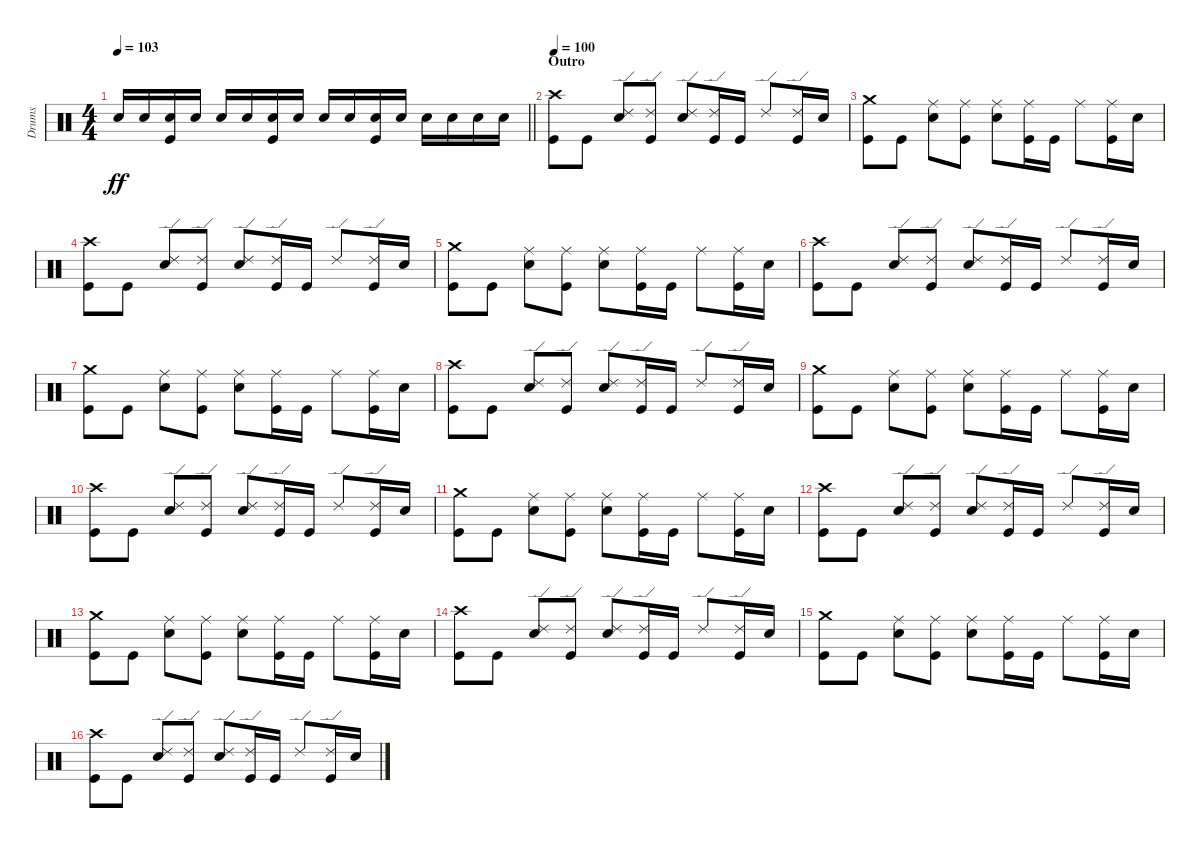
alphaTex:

\track ("Drums" "Drums") {instrument percussion}
\staff {score}
\articulation defaults
\ts (4 4)
\tempo 103
\clef neutral
\barLineRight lightlight
\ks c "Electric Snare (hit)".16{dy ff} "Electric Snare (hit)".16
("Electric Snare (hit)" "Kick (hit)").16 "Electric Snare (hit)".16 "Electric Snare (hit)".16 "Electric Snare (hit)".16 ("Electric Snare (hit)" "Kick (hit)").16 "Electric Snare (hit)".16 "Electric Snare (hit)".16 "Electric Snare (hit)".16 ("Electric Snare (hit)" "Kick (hit)").16 "Electric Snare (hit)".16 "Electric Snare (hit)".16 "Electric Snare (hit)".16 "Electric Snare (hit)".16 "Electric Snare (hit)".16 |
\section ("" "Outro")
\tempo 100
("Crash high (hit)" "Kick (hit)").8 "Kick (hit)".8 ("Ride (edge) 2" "Electric Snare (hit)").8 ("Ride (edge) 2" "Kick (hit)").8 ("Ride (edge) 2" "Electric Snare (hit)").8 ("Ride (edge) 2" "Kick (hit)").16 "Kick (hit)".16 "Ride (edge) 2".8 ("Ride (edge) 2" "Kick (hit)").16 "Electric Snare (hit)".16 |
("Crash medium (hit)" "Kick (hit)").8 "Kick (hit)".8 ("Ride (middle)" "Electric Snare (hit)").8 ("Ride (middle)" "Kick (hit)").8 ("Ride (middle)" "Electric Snare (hit)").8 ("Ride (middle)" "Kick (hit)").16 "Kick (hit)".16 "Ride (middle)".8 ("Ride (middle)" "Kick (hit)").16 "Electric Snare (hit)".16 |
("Crash high (hit)" "Kick (hit)").8 "Kick (hit)".8 ("Ride (edge) 2" "Electric Snare (hit)").8 ("Ride (edge) 2" "Kick (hit)").8 ("Ride (edge) 2" "Electric Snare (hit)").8 ("Ride (edge) 2" "Kick (hit)").16 "Kick (hit)".16 "Ride (edge) 2".8 ("Ride (edge) 2" "Kick (hit)").16 "Electric Snare (hit)".16 |
("Crash medium (hit)" "Kick (hit)").8 "Kick (hit)".8 ("Ride (middle)" "Electric Snare (hit)").8 ("Ride (middle)" "Kick (hit)").8 ("Ride (middle)" "Electric Snare (hit)").8 ("Ride (middle)" "Kick (hit)").16 "Kick (hit)".16 "Ride (middle)".8 ("Ride (middle)" "Kick (hit)").16 "Electric Snare (hit)".16 |
("Crash high (hit)" "Kick (hit)").8 "Kick (hit)".8 ("Ride (edge) 2" "Electric Snare (hit)").8 ("Ride (edge) 2" "Kick (hit)").8 ("Ride (edge) 2" "Electric Snare (hit)").8 ("Ride (edge) 2" "Kick (hit)").16 "Kick (hit)".16 "Ride (edge) 2".8 ("Ride (edge) 2" "Kick (hit)").16 "Electric Snare (hit)".16 |
("Crash medium (hit)" "Kick (hit)").8 "Kick (hit)".8 ("Ride (middle)" "Electric Snare (hit)").8 ("Ride (middle)" "Kick (hit)").8 ("Ride (middle)" "Electric Snare (hit)").8 ("Ride (middle)" "Kick (hit)").16 "Kick (hit)".16 "Ride (middle)".8 ("Ride (middle)" "Kick (hit)").16 "Electric Snare (hit)".16 |
("Crash high (hit)" "Kick (hit)").8 "Kick (hit)".8 ("Ride (edge) 2" "Electric Snare (hit)").8 ("Ride (edge) 2" "Kick (hit)").8 ("Ride (edge) 2" "Electric Snare (hit)").8 ("Ride (edge) 2" "Kick (hit)").16 "Kick (hit)".16 "Ride (edge) 2".8 ("Ride (edge) 2" "Kick (hit)").16 "Electric Snare (hit)".16 |
("Crash medium (hit)" "Kick (hit)").8 "Kick (hit)".8 ("Ride (middle)" "Electric Snare (hit)").8 ("Ride (middle)" "Kick (hit)").8 ("Ride (middle)" "Electric Snare (hit)").8 ("Ride (middle)" "Kick (hit)").16 "Kick (hit)".16 "Ride (middle)".8 ("Ride (middle)" "Kick (hit)").16 "Electric Snare (hit)".16 |
("Crash high (hit)" "Kick (hit)").8 "Kick (hit)".8 ("Ride (edge) 2" "Electric Snare (hit)").8 ("Ride (edge) 2" "Kick (hit)").8 ("Ride (edge) 2" "Electric Snare (hit)").8 ("Ride (edge) 2" "Kick (hit)").16 "Kick (hit)".16 "Ride (edge) 2".8 ("Ride (edge) 2" "Kick (hit)").16 "Electric Snare (hit)".16 |
("Crash medium (hit)" "Kick (hit)").8 "Kick (hit)".8 ("Ride (middle)" "Electric Snare (hit)").8 ("Ride (middle)" "Kick (hit)").8 ("Ride (middle)" "Electric Snare (hit)").8 ("Ride (middle)" "Kick (hit)").16 "Kick (hit)".16 "Ride (middle)".8 ("Ride (middle)" "Kick (hit)").16 "Electric Snare (hit)".16 |
("Crash high (hit)" "Kick (hit)").8 "Kick (hit)".8 ("Ride (edge) 2" "Electric Snare (hit)").8 ("Ride (edge) 2" "Kick (hit)").8 ("Ride (edge) 2" "Electric Snare (hit)").8 ("Ride (edge) 2" "Kick (hit)").16 "Kick (hit)".16 "Ride (edge) 2".8 ("Ride (edge) 2" "Kick (hit)").16 "Electric Snare (hit)".16 |
("Crash medium (hit)" "Kick (hit)").8 "Kick (hit)".8 ("Ride (middle)" "Electric Snare (hit)").8 ("Ride (middle)" "Kick (hit)").8 ("Ride (middle)" "Electric Snare (hit)").8 ("Ride (middle)" "Kick (hit)").16 "Kick (hit)".16 "Ride (middle)".8 ("Ride (middle)" "Kick (hit)").16 "Electric Snare (hit)".16 |
("Crash high (hit)" "Kick (hit)").8 "Kick (hit)".8 ("Ride (edge) 2" "Electric Snare (hit)").8 ("Ride (edge) 2" "Kick (hit)").8 ("Ride (edge) 2" "Electric Snare (hit)").8 ("Ride (edge) 2" "Kick (hit)").16 "Kick (hit)".16 "Ride (edge) 2".8 ("Ride (edge) 2" "Kick (hit)").16 "Electric Snare (hit)".16 |
("Crash medium (hit)" "Kick (hit)").8 "Kick (hit)".8 ("Ride (middle)" "Electric Snare (hit)").8 ("Ride (middle)" "Kick (hit)").8 ("Ride (middle)" "Electric Snare (hit)").8 ("Ride (middle)" "Kick (hit)").16 "Kick (hit)".16 "Ride (middle)".8 ("Ride (middle)" "Kick (hit)").16 "Electric Snare (hit)".16 |
("Crash high (hit)" "Kick (hit)").8 "Kick (hit)".8 ("Ride (edge) 2" "Electric Snare (hit)").8 ("Ride (edge) 2" "Kick (hit)").8 ("Ride (edge) 2" "Electric Snare (hit)").8 ("Ride (edge) 2" "Kick (hit)").16 "Kick (hit)".16 "Ride (edge) 2".8 ("Ride (edge) 2" "Kick (hit)").16 "Electric Snare (hit)".16
